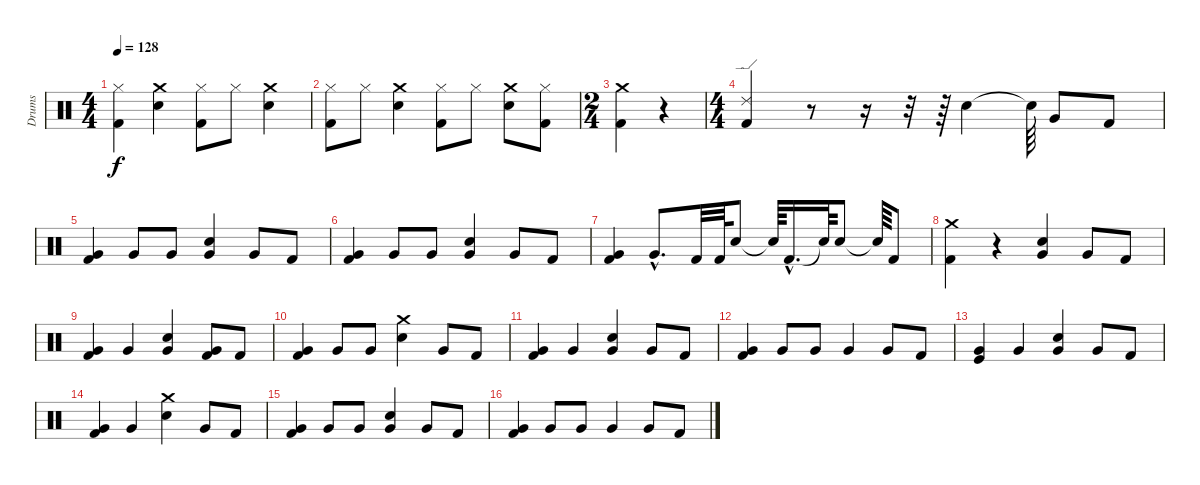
\track ("Drums" "Drums") {instrument percussion}
\staff {score}
\articulation defaults
\ts (4 4)
\tempo 128
\clef neutral
\ks c
("Kick (hit) 2" "Hi-Hat (closed)").4{dy f} ("Crash medium (hit)" "Snare (hit) 2").4 ("Kick (hit) 2" "Hi-Hat (closed)").8 "Hi-Hat (closed)".8 ("Crash medium (hit)" "Snare (hit) 2").4 |
("Hi-Hat (closed)" "Kick (hit) 2").8 "Hi-Hat (closed)".8 ("Crash medium (hit)" "Snare (hit) 2").4 ("Hi-Hat (closed)" "Kick (hit) 2").8 "Hi-Hat (closed)".8 ("Crash medium (hit)" "Snare (hit) 2").8 ("Kick (hit) 2" "Hi-Hat (closed)").8 |
\ts (2 4)
("Kick (hit) 2" "Crash medium (hit)").4 r.4 |
\ts (4 4)
("Ride (edge) 2" "Kick (hit) 2").4 r.8 r.16 r.32 r.64 "Snare (hit) 2".4 "Snare (hit)"{t}.64 "Very Low Tom (hit)".8 "Kick (hit) 2".8 |
("Very Low Tom (hit)" "Kick (hit) 2").4 "Very Low Tom (hit)".8 "Very Low Tom (hit)".8 ("Snare (hit) 2" "Very Low Tom (hit)").4 "Very Low Tom (hit)".8 "Kick (hit) 2".8 |
("Very Low Tom (hit)" "Kick (hit) 2").4 "Very Low Tom (hit)".8 "Very Low Tom (hit)".8 ("Snare (hit) 2" "Very Low Tom (hit)").4 "Very Low Tom (hit)".8 "Kick (hit) 2".8 |
("Kick (hit) 2" "Very Low Tom (hit)").4 "Very Low Tom (hit)"{hac}.8{d} "Kick (hit) 2".32 "Kick (hit) 2".64 "Snare (hit) 2".8 "Snare (hit)"{t}.64 "Kick (hit) 2"{hac}.16{d} "Snare (hit)"{t}.64 "Snare (hit) 2".8 "Snare (hit)"{t}.64 "Kick (hit) 2".8 |
("Kick (hit) 2" "Crash medium (hit)").4 r.4 ("Snare (hit) 2" "Very Low Tom (hit)").4 "Very Low Tom (hit)".8 "Kick (hit) 2".8 |
("Kick (hit) 2" "Very Low Tom (hit)").4 "Very Low Tom (hit)".4 ("Snare (hit) 2" "Very Low Tom (hit)").4 ("Kick (hit) 2" "Very Low Tom (hit)").8 "Kick (hit) 2".8 |
("Kick (hit) 2" "Very Low Tom (hit)").4 "Very Low Tom (hit)".8 "Very Low Tom (hit)".8 ("Crash medium (hit)" "Snare (hit) 2").4 "Very Low Tom (hit)".8 "Kick (hit) 2".8 |
("Kick (hit) 2" "Very Low Tom (hit)").4 "Very Low Tom (hit)".4 ("Snare (hit) 2" "Very Low Tom (hit)").4 "Very Low Tom (hit)".8 "Kick (hit) 2".8 |
("Very Low Tom (hit)" "Kick (hit) 2").4 "Very Low Tom (hit)".8 "Very Low Tom (hit)".8 "Very Low Tom (hit)".4 "Very Low Tom (hit)".8 "Kick (hit) 2".8 |
("Kick (hit)" "Very Low Tom (hit)").4 "Very Low Tom (hit)".4 ("Snare (hit) 2" "Very Low Tom (hit)").4 "Very Low Tom (hit)".8 "Kick (hit) 2".8 |
("Kick (hit) 2" "Very Low Tom (hit)").4 "Very Low Tom (hit)".4 ("Crash medium (hit)" "Snare (hit) 2").4 "Very Low Tom (hit)".8 "Kick (hit) 2".8 |
("Kick (hit) 2" "Very Low Tom (hit)").4 "Very Low Tom (hit)".8 "Very Low Tom (hit)".8 ("Snare (hit) 2" "Very Low Tom (hit)").4 "Very Low Tom (hit)".8 "Kick (hit) 2".8 |
("Very Low Tom (hit)" "Kick (hit) 2").4 "Very Low Tom (hit)".8 "Very Low Tom (hit)".8 "Very Low Tom (hit)".4 "Very Low Tom (hit)".8 "Kick (hit) 2".8
